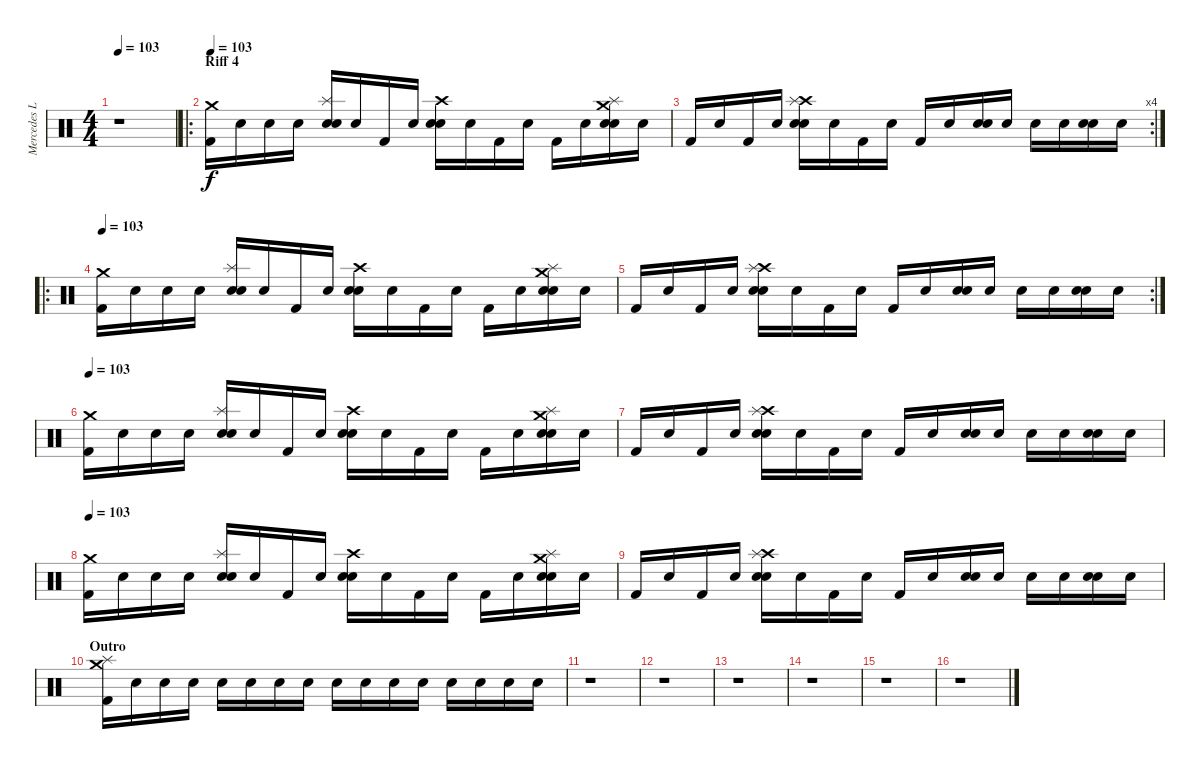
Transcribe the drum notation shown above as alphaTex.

\track ("Mercedes Lander - Drums" "Mercedes L") {instrument percussion}
\staff {score}
\articulation defaults
\ts (4 4)
\tempo 103
\clef neutral
\ks c
r.1{dy f} |
\ro
\section ("" "Riff 4")
\tempo 103
("Crash medium (hit)" "Kick (hit) 2").16{volume 12 balance 8} "Snare (hit)".16 "Snare (hit)".16 "Snare (hit)".16 ("Splash (hit)" "Electric Snare (hit)" "Snare (hit) 2").16 "Snare (hit)".16 "Kick (hit) 2".16 "Snare (hit)".16 ("Crash high (hit)" "Electric Snare (hit)" "Snare (hit) 2").16 "Snare (hit)".16 "Kick (hit) 2".16 "Snare (hit)".16 "Kick (hit) 2".16 "Snare (hit)".16 ("Crash medium (hit)" "Splash (hit)" "Electric Snare (hit)" "Snare (hit) 2").16 "Snare (hit)".16 |
\rc 4 "Kick (hit) 2".16 "Snare (hit)".16 "Kick (hit) 2".16 "Snare (hit)".16
("Crash high (hit)" "Splash (hit)" "Electric Snare (hit)" "Snare (hit) 2").16 "Snare (hit)".16 "Kick (hit) 2".16 "Snare (hit)".16 "Kick (hit) 2".16 "Snare (hit)".16 ("Electric Snare (hit)" "Snare (hit) 2").16 "Snare (hit)".16 "Snare (hit)".16 "Snare (hit)".16 ("Electric Snare (hit)" "Snare (hit) 2").16 "Snare (hit)".16 |
\ro
\tempo 103
("Crash medium (hit)" "Kick (hit) 2").16{volume 12 balance 8} "Snare (hit)".16 "Snare (hit)".16 "Snare (hit)".16 ("Splash (hit)" "Electric Snare (hit)" "Snare (hit) 2").16 "Snare (hit)".16 "Kick (hit) 2".16 "Snare (hit)".16 ("Crash high (hit)" "Electric Snare (hit)" "Snare (hit) 2").16 "Snare (hit)".16 "Kick (hit) 2".16 "Snare (hit)".16 "Kick (hit) 2".16 "Snare (hit)".16 ("Crash medium (hit)" "Splash (hit)" "Electric Snare (hit)" "Snare (hit) 2").16 "Snare (hit)".16 |
\rc 2 "Kick (hit) 2".16 "Snare (hit)".16 "Kick (hit) 2".16 "Snare (hit)".16
("Crash high (hit)" "Splash (hit)" "Electric Snare (hit)" "Snare (hit) 2").16 "Snare (hit)".16 "Kick (hit) 2".16 "Snare (hit)".16 "Kick (hit) 2".16 "Snare (hit)".16 ("Electric Snare (hit)" "Snare (hit) 2").16 "Snare (hit)".16 "Snare (hit)".16 "Snare (hit)".16 ("Electric Snare (hit)" "Snare (hit) 2").16 "Snare (hit)".16 |
\tempo 103
("Crash medium (hit)" "Kick (hit) 2").16{volume 12 balance 8} "Snare (hit)".16 "Snare (hit)".16 "Snare (hit)".16 ("Splash (hit)" "Electric Snare (hit)" "Snare (hit) 2").16 "Snare (hit)".16 "Kick (hit) 2".16 "Snare (hit)".16 ("Crash high (hit)" "Electric Snare (hit)" "Snare (hit) 2").16 "Snare (hit)".16 "Kick (hit) 2".16 "Snare (hit)".16 "Kick (hit) 2".16 "Snare (hit)".16 ("Crash medium (hit)" "Splash (hit)" "Electric Snare (hit)" "Snare (hit) 2").16 "Snare (hit)".16 |
"Kick (hit) 2".16 "Snare (hit)".16 "Kick (hit) 2".16 "Snare (hit)".16 ("Crash high (hit)" "Splash (hit)" "Electric Snare (hit)" "Snare (hit) 2").16 "Snare (hit)".16 "Kick (hit) 2".16 "Snare (hit)".16 "Kick (hit) 2".16 "Snare (hit)".16 ("Electric Snare (hit)" "Snare (hit) 2").16 "Snare (hit)".16 "Snare (hit)".16 "Snare (hit)".16 ("Electric Snare (hit)" "Snare (hit) 2").16 "Snare (hit)".16 |
\tempo 103
("Crash medium (hit)" "Kick (hit) 2").16{volume 12 balance 8} "Snare (hit)".16 "Snare (hit)".16 "Snare (hit)".16 ("Splash (hit)" "Electric Snare (hit)" "Snare (hit) 2").16 "Snare (hit)".16 "Kick (hit) 2".16 "Snare (hit)".16 ("Crash high (hit)" "Electric Snare (hit)" "Snare (hit) 2").16 "Snare (hit)".16 "Kick (hit) 2".16 "Snare (hit)".16 "Kick (hit) 2".16 "Snare (hit)".16 ("Crash medium (hit)" "Splash (hit)" "Electric Snare (hit)" "Snare (hit) 2").16 "Snare (hit)".16 |
"Kick (hit) 2".16 "Snare (hit)".16 "Kick (hit) 2".16 "Snare (hit)".16 ("Crash high (hit)" "Splash (hit)" "Electric Snare (hit)" "Snare (hit) 2").16 "Snare (hit)".16 "Kick (hit) 2".16 "Snare (hit)".16 "Kick (hit) 2".16 "Snare (hit)".16 ("Electric Snare (hit)" "Snare (hit) 2").16 "Snare (hit)".16 "Snare (hit)".16 "Snare (hit)".16 ("Electric Snare (hit)" "Snare (hit) 2").16 "Snare (hit)".16 |
\section ("" "Outro")
("Crash medium (hit)" "Splash (hit)" "Kick (hit) 2").16 "Snare (hit)".16 "Snare (hit)".16 "Snare (hit)".16 "Snare (hit)".16 "Snare (hit)".16 "Snare (hit)".16 "Snare (hit)".16 "Snare (hit)".16 "Snare (hit)".16 "Snare (hit)".16 "Snare (hit)".16 "Snare (hit)".16 "Snare (hit)".16 "Snare (hit)".16 "Snare (hit)".16 |
r.1 |
r.1 |
r.1 |
r.1 |
r.1 |
r.1
